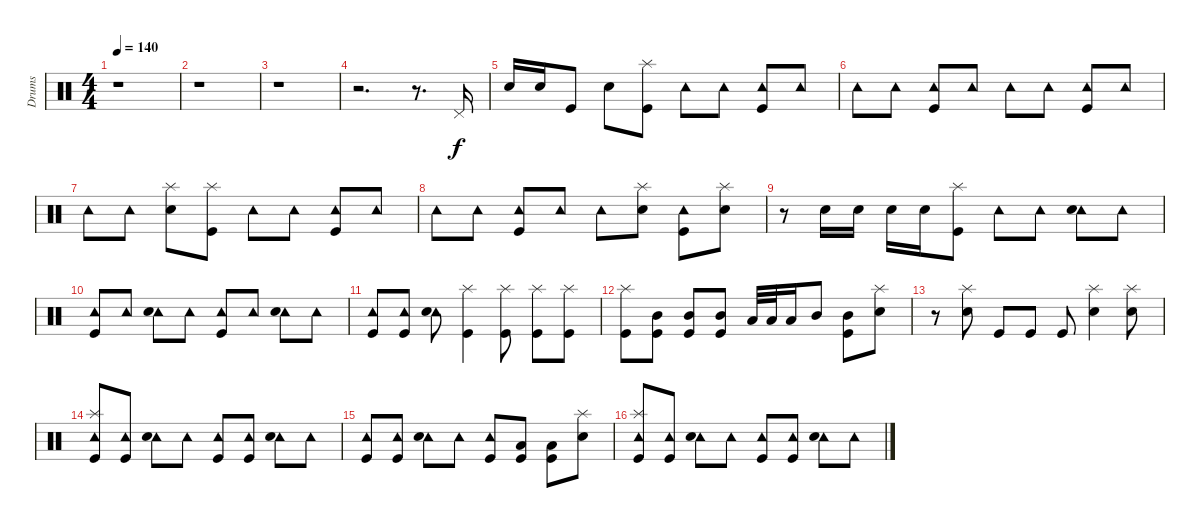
\track ("Drums" "Drums") {instrument percussion}
\staff {score}
\articulation defaults
\ts (4 4)
\tempo 140
\clef neutral
\ks c
r.1{dy f} |
r.1 |
r.1 |
r.2{d} r.8{d} "Pedal Hi-Hat (hit)".16 |
"Snare (hit) 2".16 "Snare (hit) 2".16 "Kick (hit)".8 "Snare (hit) 2".8 ("Kick (hit)" "Splash (hit)").8 "Tambourine (hit)".8 "Tambourine (hit)".8 ("Tambourine (hit)" "Kick (hit)").8 "Tambourine (hit)".8 |
"Tambourine (hit)".8 "Tambourine (hit)".8 ("Tambourine (hit)" "Kick (hit)").8 "Tambourine (hit)".8 "Tambourine (hit)".8 "Tambourine (hit)".8 ("Tambourine (hit)" "Kick (hit)").8 "Tambourine (hit)".8 |
"Tambourine (hit)".8 "Tambourine (hit)".8 ("Snare (hit) 2" "Splash (hit)").8 ("Kick (hit)" "Splash (hit)").8 "Tambourine (hit)".8 "Tambourine (hit)".8 ("Tambourine (hit)" "Kick (hit)").8 "Tambourine (hit)".8 |
"Tambourine (hit)".8 "Tambourine (hit)".8 ("Tambourine (hit)" "Kick (hit)").8 "Tambourine (hit)".8 "Tambourine (hit)".8 ("Snare (hit) 2" "Splash (hit)").8 ("Tambourine (hit)" "Kick (hit)").8 ("Snare (hit) 2" "Splash (hit)").8 |
r.8 "Snare (hit) 2".16 "Snare (hit) 2".16 "Snare (hit) 2".16 "Snare (hit) 2".16 ("Kick (hit)" "Splash (hit)").8 "Tambourine (hit)".8 "Tambourine (hit)".8 ("Tambourine (hit)" "Snare (hit) 2").8 "Tambourine (hit)".8 |
("Tambourine (hit)" "Kick (hit)").8 "Tambourine (hit)".8 ("Tambourine (hit)" "Snare (hit) 2").8 "Tambourine (hit)".8 ("Tambourine (hit)" "Kick (hit)").8 "Tambourine (hit)".8 ("Tambourine (hit)" "Snare (hit) 2").8 "Tambourine (hit)".8 |
("Tambourine (hit)" "Kick (hit)").8 ("Tambourine (hit)" "Kick (hit)").8 ("Tambourine (hit)" "Snare (hit) 2").8 ("Kick (hit)" "Splash (hit)").4 ("Kick (hit)" "Splash (hit)").8 ("Kick (hit)" "Splash (hit)").8 ("Kick (hit)" "Splash (hit)").8 |
("Kick (hit)" "Splash (hit)").8 ("Kick (hit)" "Mid Tom (hit)").8 ("Kick (hit)" "Mid Tom (hit)").8 ("Kick (hit)" "Mid Tom (hit)").8 "Low Tom (hit)".32 "Low Tom (hit)".32 "Low Tom (hit)".16 "Mid Tom (hit)".8 ("Kick (hit)" "Mid Tom (hit)").8 ("Snare (hit) 2" "Splash (hit)").8 |
r.8 ("Snare (hit) 2" "Splash (hit)").8 "Kick (hit)".8 "Kick (hit)".8 "Kick (hit)".8 ("Snare (hit) 2" "Splash (hit)").4 ("Snare (hit) 2" "Splash (hit)").8 |
("Tambourine (hit)" "Kick (hit)" "Splash (hit)").8 ("Tambourine (hit)" "Kick (hit)").8 ("Tambourine (hit)" "Snare (hit) 2").8 "Tambourine (hit)".8 ("Tambourine (hit)" "Kick (hit)").8 ("Tambourine (hit)" "Kick (hit)").8 ("Tambourine (hit)" "Snare (hit) 2").8 "Tambourine (hit)".8 |
("Tambourine (hit)" "Kick (hit)").8 ("Tambourine (hit)" "Kick (hit)").8 ("Tambourine (hit)" "Snare (hit) 2").8 "Tambourine (hit)".8 ("Tambourine (hit)" "Kick (hit)").8 ("Kick (hit)" "Low Tom (hit)").8 ("Kick (hit)" "Low Tom (hit)").8 ("Snare (hit) 2" "Splash (hit)").8 |
("Tambourine (hit)" "Kick (hit)" "Splash (hit)").8 ("Tambourine (hit)" "Kick (hit)").8 ("Tambourine (hit)" "Snare (hit) 2").8 "Tambourine (hit)".8 ("Tambourine (hit)" "Kick (hit)").8 ("Tambourine (hit)" "Kick (hit)").8 ("Tambourine (hit)" "Snare (hit) 2").8 "Tambourine (hit)".8
